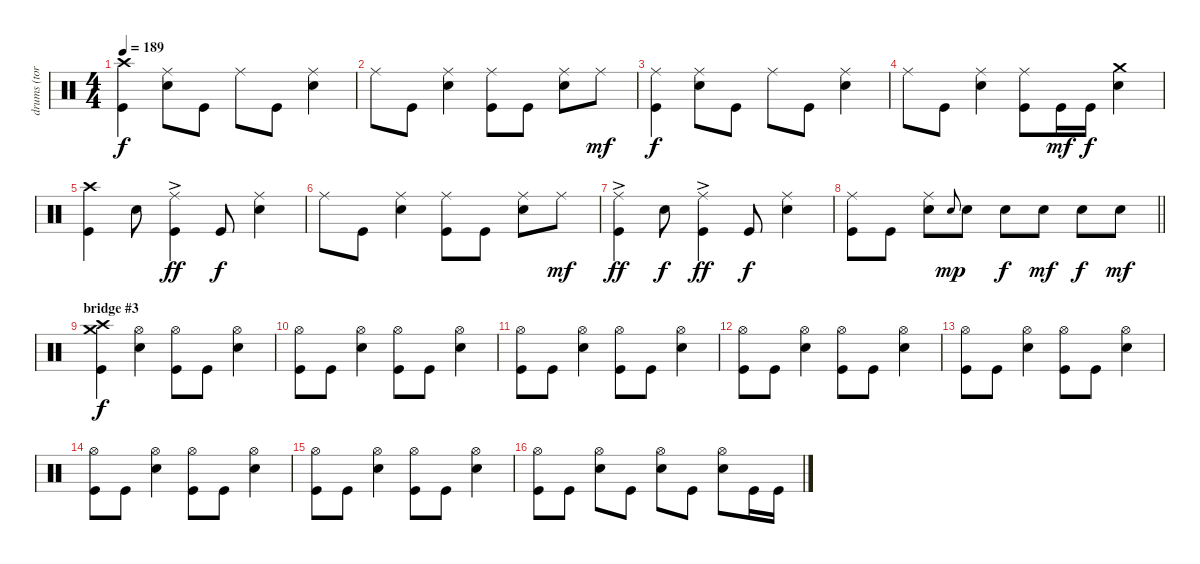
\track ("drums (tora)" "drums (tor") {instrument percussion}
\staff {score}
\articulation defaults
\ts (4 4)
\tempo 189
\clef neutral
\ks c
("Crash high (hit)" "Kick (hit)").4{dy f} ("Ride (middle)" "Snare (hit) 2").8 "Kick (hit)".8 "Ride (middle)".8 "Kick (hit)".8 ("Ride (middle)" "Snare (hit) 2").4 |
"Ride (middle)".8 "Kick (hit)".8 ("Ride (middle)" "Snare (hit) 2").4 ("Ride (middle)" "Kick (hit)").8 "Kick (hit)".8 ("Ride (middle)" "Snare (hit) 2").8 "Ride (middle)".8{dy mf} |
("Ride (middle)" "Kick (hit)").4{dy f} ("Ride (middle)" "Snare (hit) 2").8 "Kick (hit)".8 "Ride (middle)".8 "Kick (hit)".8 ("Ride (middle)" "Snare (hit) 2").4 |
"Ride (middle)".8 "Kick (hit)".8 ("Ride (middle)" "Snare (hit) 2").4 ("Ride (middle)" "Kick (hit)").8 "Kick (hit)".16{dy mf} "Kick (hit)".16{dy f} ("Crash medium (hit)" "Snare (hit) 2").4 |
("Crash high (hit)" "Kick (hit)").4 "Snare (hit) 2".8 ("Ride (middle)"{ac} "Kick (hit)").4{dy ff} "Kick (hit)".8{dy f} ("Ride (middle)" "Snare (hit) 2").4 |
"Ride (middle)".8 "Kick (hit)".8 ("Ride (middle)" "Snare (hit) 2").4 ("Ride (middle)" "Kick (hit)").8 "Kick (hit)".8 ("Ride (middle)" "Snare (hit) 2").8 "Ride (middle)".8{dy mf} |
("Ride (middle)"{ac} "Kick (hit)").4{dy ff} "Snare (hit) 2".8{dy f} ("Ride (middle)"{ac} "Kick (hit)").4{dy ff} "Kick (hit)".8{dy f} ("Ride (middle)" "Snare (hit) 2").4 |
\barLineRight lightlight
("Ride (middle)" "Kick (hit)").8 "Kick (hit)".8 ("Ride (middle)" "Snare (hit) 2").8 "Snare (hit) 2".8{gr onbeat dy mp} "Snare (hit) 2".8 "Snare (hit) 2".8{dy f} "Snare (hit) 2".8{dy mf} "Snare (hit) 2".8{dy f} "Snare (hit) 2".8{dy mf} |
\section ("" "bridge #3")
("Crash high (hit)" "Crash medium (hit)" "Kick (hit)").4{dy f} ("Hi-Hat (open)" "Snare (hit) 2").4 ("Hi-Hat (open)" "Kick (hit)").8 "Kick (hit)".8 ("Hi-Hat (open)" "Snare (hit) 2").4 |
("Hi-Hat (open)" "Kick (hit)").8 "Kick (hit)".8 ("Hi-Hat (open)" "Snare (hit) 2").4 ("Hi-Hat (open)" "Kick (hit)").8 "Kick (hit)".8 ("Hi-Hat (open)" "Snare (hit) 2").4 |
("Hi-Hat (open)" "Kick (hit)").8 "Kick (hit)".8 ("Hi-Hat (open)" "Snare (hit) 2").4 ("Hi-Hat (open)" "Kick (hit)").8 "Kick (hit)".8 ("Hi-Hat (open)" "Snare (hit) 2").4 |
("Hi-Hat (open)" "Kick (hit)").8 "Kick (hit)".8 ("Hi-Hat (open)" "Snare (hit) 2").4 ("Hi-Hat (open)" "Kick (hit)").8 "Kick (hit)".8 ("Hi-Hat (open)" "Snare (hit) 2").4 |
("Hi-Hat (open)" "Kick (hit)").8 "Kick (hit)".8 ("Hi-Hat (open)" "Snare (hit) 2").4 ("Hi-Hat (open)" "Kick (hit)").8 "Kick (hit)".8 ("Hi-Hat (open)" "Snare (hit) 2").4 |
("Hi-Hat (open)" "Kick (hit)").8 "Kick (hit)".8 ("Hi-Hat (open)" "Snare (hit) 2").4 ("Hi-Hat (open)" "Kick (hit)").8 "Kick (hit)".8 ("Hi-Hat (open)" "Snare (hit) 2").4 |
("Hi-Hat (open)" "Kick (hit)").8 "Kick (hit)".8 ("Hi-Hat (open)" "Snare (hit) 2").4 ("Hi-Hat (open)" "Kick (hit)").8 "Kick (hit)".8 ("Hi-Hat (open)" "Snare (hit) 2").4 |
("Hi-Hat (open)" "Kick (hit)").8 "Kick (hit)".8 ("Hi-Hat (open)" "Snare (hit) 2").8 "Kick (hit)".8 ("Hi-Hat (open)" "Snare (hit) 2").8 "Kick (hit)".8 ("Hi-Hat (open)" "Snare (hit) 2").8 "Kick (hit)".16 "Kick (hit)".16
